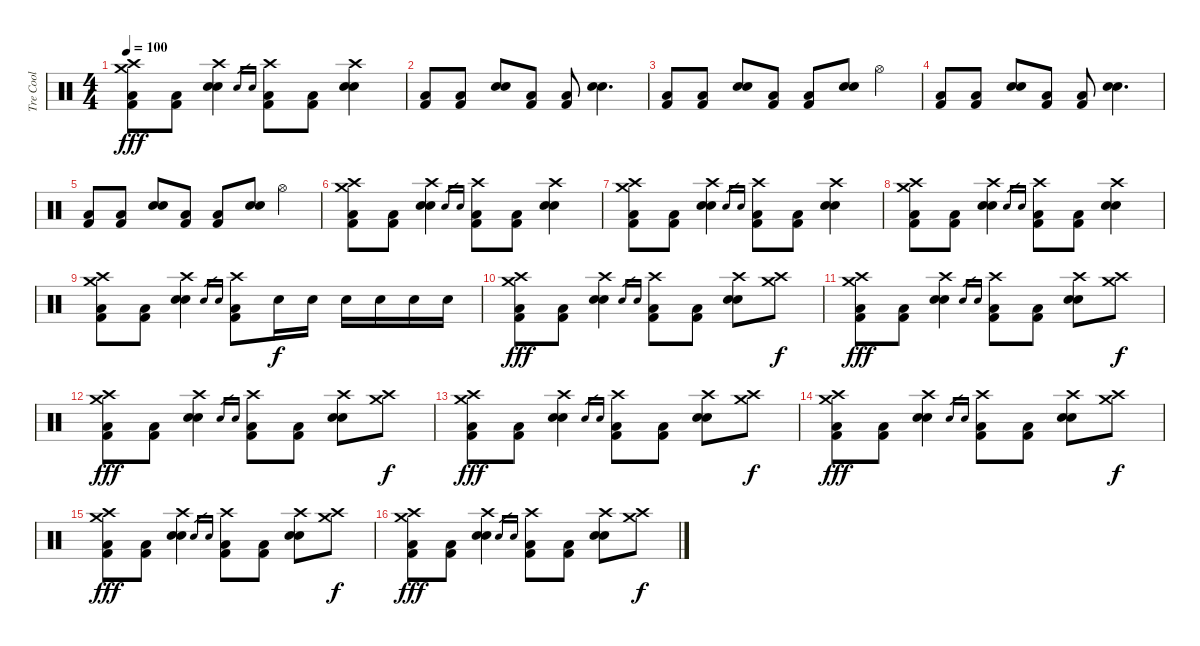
\track ("Tre Cool" "Tre Cool") {instrument percussion}
\staff {score}
\articulation defaults
\ts (4 4)
\tempo 100
\clef neutral
\ks c
("Crash high (hit)" "Crash medium (hit)" "Kick (hit) 2" "Low Floor Tom (hit)").8{dy fff} ("Kick (hit) 2" "Low Floor Tom (hit)").8 ("Crash high (hit)" "Electric Snare (hit)" "Electric Snare (hit)").4 "Electric Snare (hit)".16{gr} "Electric Snare (hit)".16{gr} ("Crash high (hit)" "Kick (hit) 2" "Low Floor Tom (hit)").8 ("Kick (hit) 2" "Low Floor Tom (hit)").8 ("Crash high (hit)" "Electric Snare (hit)" "Electric Snare (hit)").4 |
("Kick (hit) 2" "Low Floor Tom (hit)").8 ("Kick (hit) 2" "Low Floor Tom (hit)").8 ("Electric Snare (hit)" "Electric Snare (hit)").8 ("Kick (hit) 2" "Low Floor Tom (hit)").8 ("Kick (hit) 2" "Low Floor Tom (hit)").8 ("Electric Snare (hit)" "Electric Snare (hit)").4{d} |
("Kick (hit) 2" "Low Floor Tom (hit)").8 ("Kick (hit) 2" "Low Floor Tom (hit)").8 ("Electric Snare (hit)" "Electric Snare (hit)").8 ("Kick (hit) 2" "Low Floor Tom (hit)").8 ("Kick (hit) 2" "Low Floor Tom (hit)").8 ("Electric Snare (hit)" "Electric Snare (hit)").8 "Hi-Hat (open)".4 |
("Kick (hit) 2" "Low Floor Tom (hit)").8 ("Kick (hit) 2" "Low Floor Tom (hit)").8 ("Electric Snare (hit)" "Electric Snare (hit)").8 ("Kick (hit) 2" "Low Floor Tom (hit)").8 ("Kick (hit) 2" "Low Floor Tom (hit)").8 ("Electric Snare (hit)" "Electric Snare (hit)").4{d} |
("Kick (hit) 2" "Low Floor Tom (hit)").8 ("Kick (hit) 2" "Low Floor Tom (hit)").8 ("Electric Snare (hit)" "Electric Snare (hit)").8 ("Kick (hit) 2" "Low Floor Tom (hit)").8 ("Kick (hit) 2" "Low Floor Tom (hit)").8 ("Electric Snare (hit)" "Electric Snare (hit)").8 "Hi-Hat (open)".4 |
("Crash high (hit)" "Crash medium (hit)" "Kick (hit) 2" "Low Floor Tom (hit)").8 ("Kick (hit) 2" "Low Floor Tom (hit)").8 ("Crash high (hit)" "Electric Snare (hit)" "Electric Snare (hit)").4 "Electric Snare (hit)".16{gr} "Electric Snare (hit)".16{gr} ("Crash high (hit)" "Kick (hit) 2" "Low Floor Tom (hit)").8 ("Kick (hit) 2" "Low Floor Tom (hit)").8 ("Crash high (hit)" "Electric Snare (hit)" "Electric Snare (hit)").4 |
("Crash high (hit)" "Crash medium (hit)" "Kick (hit) 2" "Low Floor Tom (hit)").8 ("Kick (hit) 2" "Low Floor Tom (hit)").8 ("Crash high (hit)" "Electric Snare (hit)" "Electric Snare (hit)").4 "Electric Snare (hit)".16{gr} "Electric Snare (hit)".16{gr} ("Crash high (hit)" "Kick (hit) 2" "Low Floor Tom (hit)").8 ("Kick (hit) 2" "Low Floor Tom (hit)").8 ("Crash high (hit)" "Electric Snare (hit)" "Electric Snare (hit)").4 |
("Crash high (hit)" "Crash medium (hit)" "Kick (hit) 2" "Low Floor Tom (hit)").8 ("Kick (hit) 2" "Low Floor Tom (hit)").8 ("Crash high (hit)" "Electric Snare (hit)" "Electric Snare (hit)").4 "Electric Snare (hit)".16{gr} "Electric Snare (hit)".16{gr} ("Crash high (hit)" "Kick (hit) 2" "Low Floor Tom (hit)").8 ("Kick (hit) 2" "Low Floor Tom (hit)").8 ("Crash high (hit)" "Electric Snare (hit)" "Electric Snare (hit)").4 |
("Crash high (hit)" "Crash medium (hit)" "Kick (hit) 2" "Low Floor Tom (hit)").8 ("Kick (hit) 2" "Low Floor Tom (hit)").8 ("Crash high (hit)" "Electric Snare (hit)" "Electric Snare (hit)").4 "Electric Snare (hit)".16{gr} "Electric Snare (hit)".16{gr} ("Crash high (hit)" "Kick (hit) 2" "Low Floor Tom (hit)").8 "Electric Snare (hit)".16{dy f} "Electric Snare (hit)".16 "Electric Snare (hit)".16 "Electric Snare (hit)".16 "Electric Snare (hit)".16 "Electric Snare (hit)".16 |
("Crash high (hit)" "Crash medium (hit)" "Kick (hit) 2" "Low Floor Tom (hit)").8{dy fff} ("Kick (hit) 2" "Low Floor Tom (hit)").8 ("Crash high (hit)" "Electric Snare (hit)" "Electric Snare (hit)").4 "Electric Snare (hit)".16{gr} "Electric Snare (hit)".16{gr} ("Crash high (hit)" "Kick (hit) 2" "Low Floor Tom (hit)").8 ("Kick (hit) 2" "Low Floor Tom (hit)").8 ("Crash high (hit)" "Electric Snare (hit)" "Electric Snare (hit)").8 ("Crash high (hit)" "Crash medium (hit)").8{dy f} |
("Crash high (hit)" "Crash medium (hit)" "Kick (hit) 2" "Low Floor Tom (hit)").8{dy fff} ("Kick (hit) 2" "Low Floor Tom (hit)").8 ("Crash high (hit)" "Electric Snare (hit)" "Electric Snare (hit)").4 "Electric Snare (hit)".16{gr} "Electric Snare (hit)".16{gr} ("Crash high (hit)" "Kick (hit) 2" "Low Floor Tom (hit)").8 ("Kick (hit) 2" "Low Floor Tom (hit)").8 ("Crash high (hit)" "Electric Snare (hit)" "Electric Snare (hit)").8 ("Crash high (hit)" "Crash medium (hit)").8{dy f} |
("Crash high (hit)" "Crash medium (hit)" "Kick (hit) 2" "Low Floor Tom (hit)").8{dy fff} ("Kick (hit) 2" "Low Floor Tom (hit)").8 ("Crash high (hit)" "Electric Snare (hit)" "Electric Snare (hit)").4 "Electric Snare (hit)".16{gr} "Electric Snare (hit)".16{gr} ("Crash high (hit)" "Kick (hit) 2" "Low Floor Tom (hit)").8 ("Kick (hit) 2" "Low Floor Tom (hit)").8 ("Crash high (hit)" "Electric Snare (hit)" "Electric Snare (hit)").8 ("Crash high (hit)" "Crash medium (hit)").8{dy f} |
("Crash high (hit)" "Crash medium (hit)" "Kick (hit) 2" "Low Floor Tom (hit)").8{dy fff} ("Kick (hit) 2" "Low Floor Tom (hit)").8 ("Crash high (hit)" "Electric Snare (hit)" "Electric Snare (hit)").4 "Electric Snare (hit)".16{gr} "Electric Snare (hit)".16{gr} ("Crash high (hit)" "Kick (hit) 2" "Low Floor Tom (hit)").8 ("Kick (hit) 2" "Low Floor Tom (hit)").8 ("Crash high (hit)" "Electric Snare (hit)" "Electric Snare (hit)").8 ("Crash high (hit)" "Crash medium (hit)").8{dy f} |
("Crash high (hit)" "Crash medium (hit)" "Kick (hit) 2" "Low Floor Tom (hit)").8{dy fff} ("Kick (hit) 2" "Low Floor Tom (hit)").8 ("Crash high (hit)" "Electric Snare (hit)" "Electric Snare (hit)").4 "Electric Snare (hit)".16{gr} "Electric Snare (hit)".16{gr} ("Crash high (hit)" "Kick (hit) 2" "Low Floor Tom (hit)").8 ("Kick (hit) 2" "Low Floor Tom (hit)").8 ("Crash high (hit)" "Electric Snare (hit)" "Electric Snare (hit)").8 ("Crash high (hit)" "Crash medium (hit)").8{dy f} |
("Crash high (hit)" "Crash medium (hit)" "Kick (hit) 2" "Low Floor Tom (hit)").8{dy fff} ("Kick (hit) 2" "Low Floor Tom (hit)").8 ("Crash high (hit)" "Electric Snare (hit)" "Electric Snare (hit)").4 "Electric Snare (hit)".16{gr} "Electric Snare (hit)".16{gr} ("Crash high (hit)" "Kick (hit) 2" "Low Floor Tom (hit)").8 ("Kick (hit) 2" "Low Floor Tom (hit)").8 ("Crash high (hit)" "Electric Snare (hit)" "Electric Snare (hit)").8 ("Crash high (hit)" "Crash medium (hit)").8{dy f} |
("Crash high (hit)" "Crash medium (hit)" "Kick (hit) 2" "Low Floor Tom (hit)").8{dy fff} ("Kick (hit) 2" "Low Floor Tom (hit)").8 ("Crash high (hit)" "Electric Snare (hit)" "Electric Snare (hit)").4 "Electric Snare (hit)".16{gr} "Electric Snare (hit)".16{gr} ("Crash high (hit)" "Kick (hit) 2" "Low Floor Tom (hit)").8 ("Kick (hit) 2" "Low Floor Tom (hit)").8 ("Crash high (hit)" "Electric Snare (hit)" "Electric Snare (hit)").8 ("Crash high (hit)" "Crash medium (hit)").8{dy f}
